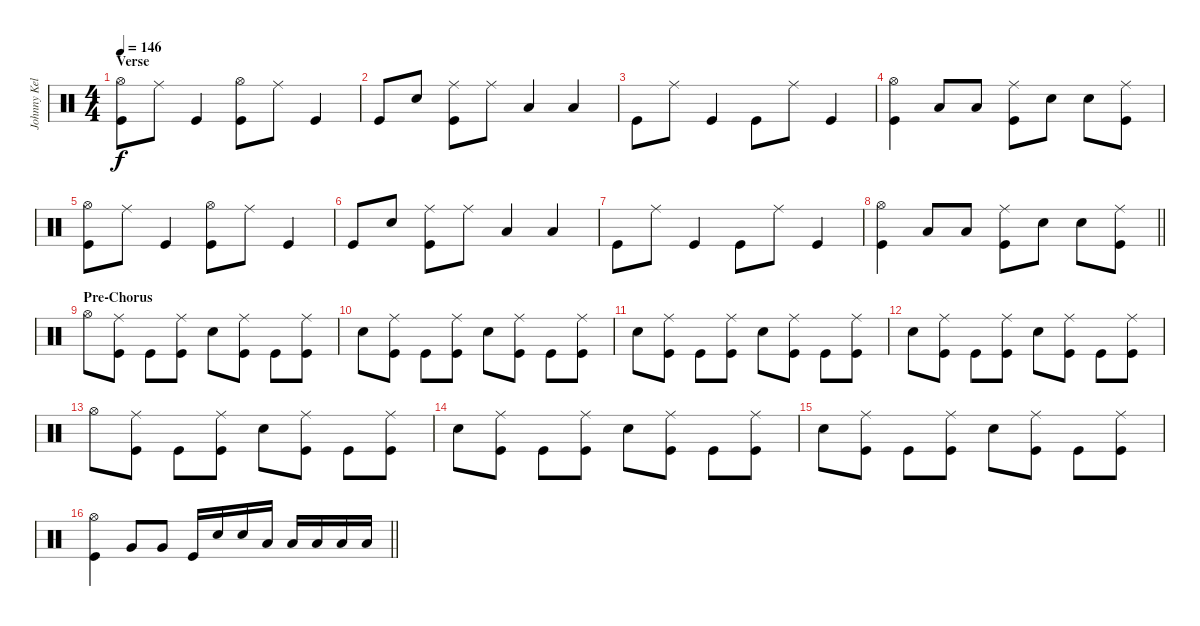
\track ("Johnny Kelly" "Johnny Kel") {instrument percussion}
\staff {score}
\articulation defaults
\ts (4 4)
\section ("" "Verse")
\tempo 146
\clef neutral
\ks c
("Kick (hit)" "Hi-Hat (open)").8{dy f} "Ride (middle)".8 "Kick (hit)".4 ("Kick (hit)" "Hi-Hat (open)").8 "Ride (middle)".8 "Kick (hit)".4 |
"Kick (hit)".8 "Snare (hit) 2".8 ("Kick (hit)" "Ride (middle)").8 "Ride (middle)".8 "Low Tom (hit)".4 "Low Tom (hit)".4 |
"Kick (hit)".8 "Ride (middle)".8 "Kick (hit)".4 "Kick (hit)".8 "Ride (middle)".8 "Kick (hit)".4 |
("Kick (hit)" "Hi-Hat (open)").4 "Low Tom (hit)".8 "Low Tom (hit)".8 ("Kick (hit)" "Ride (middle)").8 "Snare (hit) 2".8 "Snare (hit) 2".8 ("Kick (hit)" "Ride (middle)").8 |
("Kick (hit)" "Hi-Hat (open)").8 "Ride (middle)".8 "Kick (hit)".4 ("Kick (hit)" "Hi-Hat (open)").8 "Ride (middle)".8 "Kick (hit)".4 |
"Kick (hit)".8 "Snare (hit) 2".8 ("Kick (hit)" "Ride (middle)").8 "Ride (middle)".8 "Low Tom (hit)".4 "Low Tom (hit)".4 |
"Kick (hit)".8 "Ride (middle)".8 "Kick (hit)".4 "Kick (hit)".8 "Ride (middle)".8 "Kick (hit)".4 |
\barLineRight lightlight
("Kick (hit)" "Hi-Hat (open)").4 "Low Tom (hit)".8 "Low Tom (hit)".8 ("Kick (hit)" "Ride (middle)").8 "Snare (hit) 2".8 "Snare (hit) 2".8 ("Kick (hit)" "Ride (middle)").8 |
\section ("" "Pre-Chorus")
"Hi-Hat (open)".8 ("Kick (hit)" "Ride (middle)").8 "Kick (hit)".8 ("Kick (hit)" "Ride (middle)").8 "Snare (hit) 2".8 ("Kick (hit)" "Ride (middle)").8 "Kick (hit)".8 ("Kick (hit)" "Ride (middle)").8 |
"Snare (hit) 2".8 ("Kick (hit)" "Ride (middle)").8 "Kick (hit)".8 ("Kick (hit)" "Ride (middle)").8 "Snare (hit) 2".8 ("Kick (hit)" "Ride (middle)").8 "Kick (hit)".8 ("Kick (hit)" "Ride (middle)").8 |
"Snare (hit) 2".8 ("Kick (hit)" "Ride (middle)").8 "Kick (hit)".8 ("Kick (hit)" "Ride (middle)").8 "Snare (hit) 2".8 ("Kick (hit)" "Ride (middle)").8 "Kick (hit)".8 ("Kick (hit)" "Ride (middle)").8 |
"Snare (hit) 2".8 ("Kick (hit)" "Ride (middle)").8 "Kick (hit)".8 ("Kick (hit)" "Ride (middle)").8 "Snare (hit) 2".8 ("Kick (hit)" "Ride (middle)").8 "Kick (hit)".8 ("Kick (hit)" "Ride (middle)").8 |
"Hi-Hat (open)".8 ("Kick (hit)" "Ride (middle)").8 "Kick (hit)".8 ("Kick (hit)" "Ride (middle)").8 "Snare (hit) 2".8 ("Kick (hit)" "Ride (middle)").8 "Kick (hit)".8 ("Kick (hit)" "Ride (middle)").8 |
"Snare (hit) 2".8 ("Kick (hit)" "Ride (middle)").8 "Kick (hit)".8 ("Kick (hit)" "Ride (middle)").8 "Snare (hit) 2".8 ("Kick (hit)" "Ride (middle)").8 "Kick (hit)".8 ("Kick (hit)" "Ride (middle)").8 |
"Snare (hit) 2".8 ("Kick (hit)" "Ride (middle)").8 "Kick (hit)".8 ("Kick (hit)" "Ride (middle)").8 "Snare (hit) 2".8 ("Kick (hit)" "Ride (middle)").8 "Kick (hit)".8 ("Kick (hit)" "Ride (middle)").8 |
\barLineRight lightlight
("Kick (hit)" "Hi-Hat (open)").4 "Very Low Tom (hit)".8 "Very Low Tom (hit)".8 "Kick (hit)".16 "Snare (hit) 2".16 "Snare (hit) 2".16 "Low Tom (hit)".16 "Low Tom (hit)".16 "Low Tom (hit)".16 "Low Tom (hit)".16 "Low Tom (hit)".16
